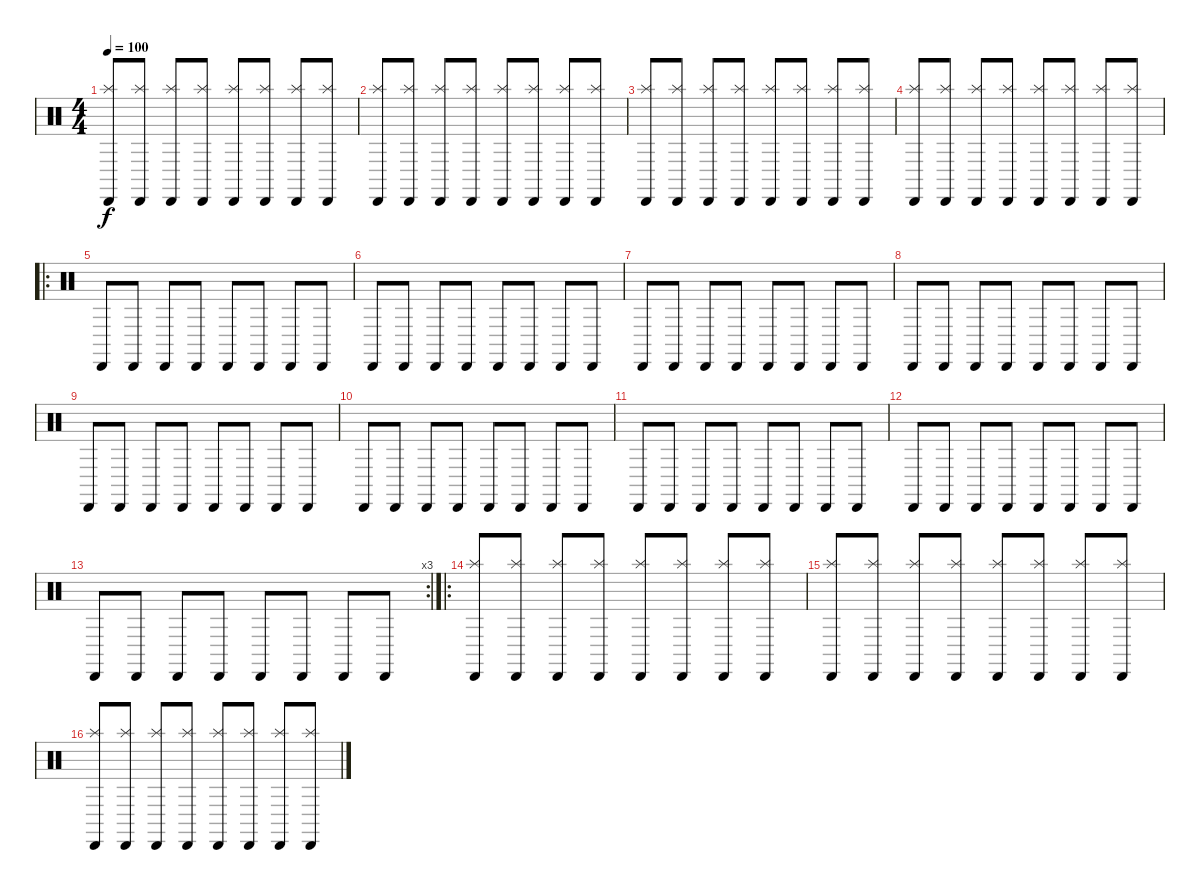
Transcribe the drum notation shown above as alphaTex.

\track "" {instrument percussion}
\staff {score}
\articulation defaults
\ts (4 4)
\tempo 100
\clef neutral
\ks c
("Cabasa (hit)" "Splash (hit)").8{dy f} ("Cabasa (hit)" "Splash (hit)").8 ("Cabasa (hit)" "Splash (hit)").8 ("Cabasa (hit)" "Splash (hit)").8 ("Cabasa (hit)" "Splash (hit)").8 ("Cabasa (hit)" "Splash (hit)").8 ("Cabasa (hit)" "Splash (hit)").8 ("Cabasa (hit)" "Splash (hit)").8 |
("Cabasa (hit)" "Splash (hit)").8 ("Cabasa (hit)" "Splash (hit)").8 ("Cabasa (hit)" "Splash (hit)").8 ("Cabasa (hit)" "Splash (hit)").8 ("Cabasa (hit)" "Splash (hit)").8 ("Cabasa (hit)" "Splash (hit)").8 ("Cabasa (hit)" "Splash (hit)").8 ("Cabasa (hit)" "Splash (hit)").8 |
("Cabasa (hit)" "Splash (hit)").8 ("Cabasa (hit)" "Splash (hit)").8 ("Cabasa (hit)" "Splash (hit)").8 ("Cabasa (hit)" "Splash (hit)").8 ("Cabasa (hit)" "Splash (hit)").8 ("Cabasa (hit)" "Splash (hit)").8 ("Cabasa (hit)" "Splash (hit)").8 ("Cabasa (hit)" "Splash (hit)").8 |
("Cabasa (hit)" "Splash (hit)").8 ("Cabasa (hit)" "Splash (hit)").8 ("Cabasa (hit)" "Splash (hit)").8 ("Cabasa (hit)" "Splash (hit)").8 ("Cabasa (hit)" "Splash (hit)").8 ("Cabasa (hit)" "Splash (hit)").8 ("Cabasa (hit)" "Splash (hit)").8 ("Cabasa (hit)" "Splash (hit)").8 |
\ro "Cabasa (hit)".8 "Cabasa (hit)".8 "Cabasa (hit)".8 "Cabasa (hit)".8 "Cabasa (hit)".8 "Cabasa (hit)".8 "Cabasa (hit)".8 "Cabasa (hit)".8
|
"Cabasa (hit)".8 "Cabasa (hit)".8 "Cabasa (hit)".8 "Cabasa (hit)".8 "Cabasa (hit)".8 "Cabasa (hit)".8 "Cabasa (hit)".8 "Cabasa (hit)".8 |
"Cabasa (hit)".8 "Cabasa (hit)".8 "Cabasa (hit)".8 "Cabasa (hit)".8 "Cabasa (hit)".8 "Cabasa (hit)".8 "Cabasa (hit)".8 "Cabasa (hit)".8 |
"Cabasa (hit)".8 "Cabasa (hit)".8 "Cabasa (hit)".8 "Cabasa (hit)".8 "Cabasa (hit)".8 "Cabasa (hit)".8 "Cabasa (hit)".8 "Cabasa (hit)".8 |
"Cabasa (hit)".8 "Cabasa (hit)".8 "Cabasa (hit)".8 "Cabasa (hit)".8 "Cabasa (hit)".8 "Cabasa (hit)".8 "Cabasa (hit)".8 "Cabasa (hit)".8 |
"Cabasa (hit)".8 "Cabasa (hit)".8 "Cabasa (hit)".8 "Cabasa (hit)".8 "Cabasa (hit)".8 "Cabasa (hit)".8 "Cabasa (hit)".8 "Cabasa (hit)".8 |
"Cabasa (hit)".8 "Cabasa (hit)".8 "Cabasa (hit)".8 "Cabasa (hit)".8 "Cabasa (hit)".8 "Cabasa (hit)".8 "Cabasa (hit)".8 "Cabasa (hit)".8 |
"Cabasa (hit)".8 "Cabasa (hit)".8 "Cabasa (hit)".8 "Cabasa (hit)".8 "Cabasa (hit)".8 "Cabasa (hit)".8 "Cabasa (hit)".8 "Cabasa (hit)".8 |
\rc 3 "Cabasa (hit)".8 "Cabasa (hit)".8 "Cabasa (hit)".8 "Cabasa (hit)".8 "Cabasa (hit)".8 "Cabasa (hit)".8 "Cabasa (hit)".8 "Cabasa (hit)".8
|
\ro
("Cabasa (hit)" "Splash (hit)").8 ("Cabasa (hit)" "Splash (hit)").8 ("Cabasa (hit)" "Splash (hit)").8 ("Cabasa (hit)" "Splash (hit)").8 ("Cabasa (hit)" "Splash (hit)").8 ("Cabasa (hit)" "Splash (hit)").8 ("Cabasa (hit)" "Splash (hit)").8 ("Cabasa (hit)" "Splash (hit)").8 |
("Cabasa (hit)" "Splash (hit)").8 ("Cabasa (hit)" "Splash (hit)").8 ("Cabasa (hit)" "Splash (hit)").8 ("Cabasa (hit)" "Splash (hit)").8 ("Cabasa (hit)" "Splash (hit)").8 ("Cabasa (hit)" "Splash (hit)").8 ("Cabasa (hit)" "Splash (hit)").8 ("Cabasa (hit)" "Splash (hit)").8 |
("Cabasa (hit)" "Splash (hit)").8 ("Cabasa (hit)" "Splash (hit)").8 ("Cabasa (hit)" "Splash (hit)").8 ("Cabasa (hit)" "Splash (hit)").8 ("Cabasa (hit)" "Splash (hit)").8 ("Cabasa (hit)" "Splash (hit)").8 ("Cabasa (hit)" "Splash (hit)").8 ("Cabasa (hit)" "Splash (hit)").8
